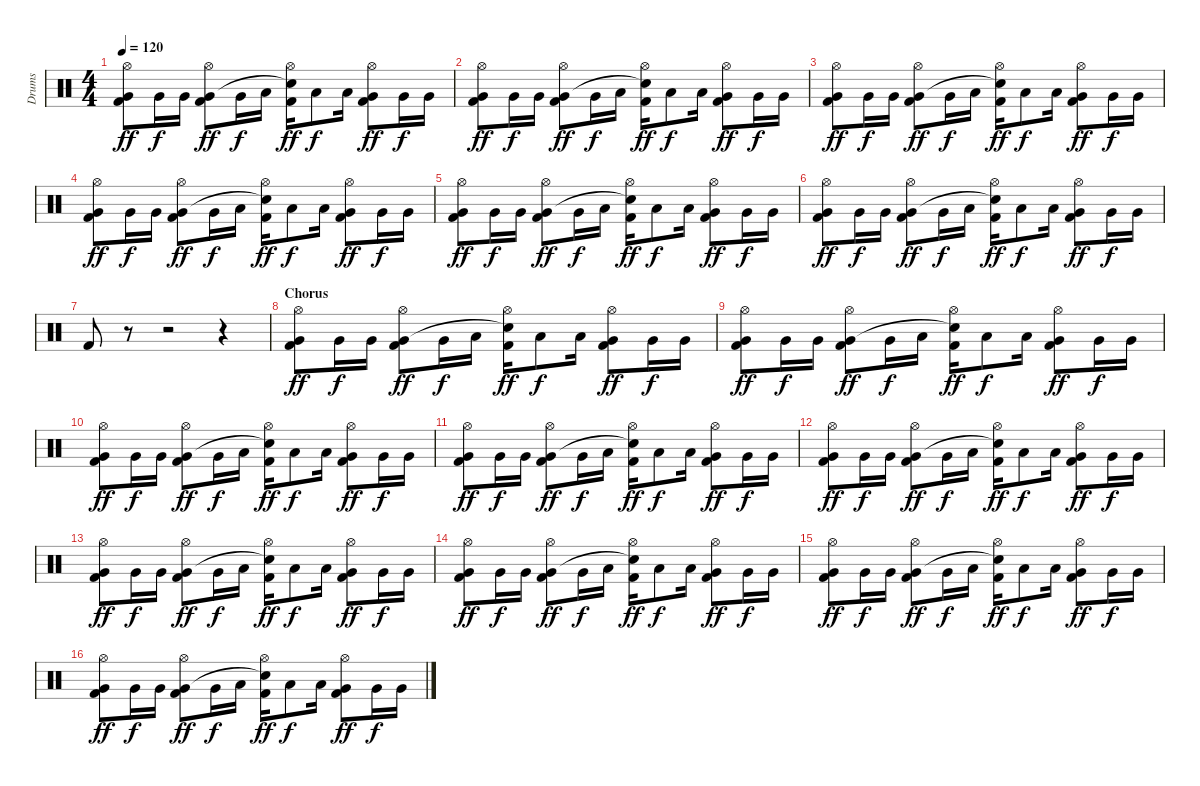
\track ("Drums" "Drums") {instrument percussion}
\staff {score}
\articulation defaults
\ts (4 4)
\tempo 120
\clef neutral
\ks c
("Hi-Hat (open)" "Very Low Tom (hit)" "Kick (hit) 2").8{dy ff} "Very Low Tom (hit)".16{dy f} "Very Low Tom (hit)".16 ("Hi-Hat (open)" "Very Low Tom (hit)" "Kick (hit) 2").8{dy ff} "Very Low Tom (hit)".16{dy f} "Low Tom (hit)".16 ("Hi-Hat (open)" "Snare (hit)"{t} "Kick (hit) 2").16{dy ff} "Low Tom (hit)".8{dy f} "Low Tom (hit)".16 ("Hi-Hat (open)" "Very Low Tom (hit)" "Kick (hit) 2").8{dy ff} "Very Low Tom (hit)".16{dy f} "Very Low Tom (hit)".16 |
("Hi-Hat (open)" "Very Low Tom (hit)" "Kick (hit) 2").8{dy ff} "Very Low Tom (hit)".16{dy f} "Very Low Tom (hit)".16 ("Hi-Hat (open)" "Very Low Tom (hit)" "Kick (hit) 2").8{dy ff} "Very Low Tom (hit)".16{dy f} "Low Tom (hit)".16 ("Hi-Hat (open)" "Snare (hit)"{t} "Kick (hit) 2").16{dy ff} "Low Tom (hit)".8{dy f} "Low Tom (hit)".16 ("Hi-Hat (open)" "Very Low Tom (hit)" "Kick (hit) 2").8{dy ff} "Very Low Tom (hit)".16{dy f} "Very Low Tom (hit)".16 |
("Hi-Hat (open)" "Very Low Tom (hit)" "Kick (hit) 2").8{dy ff} "Very Low Tom (hit)".16{dy f} "Very Low Tom (hit)".16 ("Hi-Hat (open)" "Very Low Tom (hit)" "Kick (hit) 2").8{dy ff} "Very Low Tom (hit)".16{dy f} "Low Tom (hit)".16 ("Hi-Hat (open)" "Snare (hit)"{t} "Kick (hit) 2").16{dy ff} "Low Tom (hit)".8{dy f} "Low Tom (hit)".16 ("Hi-Hat (open)" "Very Low Tom (hit)" "Kick (hit) 2").8{dy ff} "Very Low Tom (hit)".16{dy f} "Very Low Tom (hit)".16 |
("Hi-Hat (open)" "Very Low Tom (hit)" "Kick (hit) 2").8{dy ff} "Very Low Tom (hit)".16{dy f} "Very Low Tom (hit)".16 ("Hi-Hat (open)" "Very Low Tom (hit)" "Kick (hit) 2").8{dy ff} "Very Low Tom (hit)".16{dy f} "Low Tom (hit)".16 ("Hi-Hat (open)" "Snare (hit)"{t} "Kick (hit) 2").16{dy ff} "Low Tom (hit)".8{dy f} "Low Tom (hit)".16 ("Hi-Hat (open)" "Very Low Tom (hit)" "Kick (hit) 2").8{dy ff} "Very Low Tom (hit)".16{dy f} "Very Low Tom (hit)".16 |
("Hi-Hat (open)" "Very Low Tom (hit)" "Kick (hit) 2").8{dy ff} "Very Low Tom (hit)".16{dy f} "Very Low Tom (hit)".16 ("Hi-Hat (open)" "Very Low Tom (hit)" "Kick (hit) 2").8{dy ff} "Very Low Tom (hit)".16{dy f} "Low Tom (hit)".16 ("Hi-Hat (open)" "Snare (hit)"{t} "Kick (hit) 2").16{dy ff} "Low Tom (hit)".8{dy f} "Low Tom (hit)".16 ("Hi-Hat (open)" "Very Low Tom (hit)" "Kick (hit) 2").8{dy ff} "Very Low Tom (hit)".16{dy f} "Very Low Tom (hit)".16 |
("Hi-Hat (open)" "Very Low Tom (hit)" "Kick (hit) 2").8{dy ff} "Very Low Tom (hit)".16{dy f} "Very Low Tom (hit)".16 ("Hi-Hat (open)" "Very Low Tom (hit)" "Kick (hit) 2").8{dy ff} "Very Low Tom (hit)".16{dy f} "Low Tom (hit)".16 ("Hi-Hat (open)" "Snare (hit)"{t} "Kick (hit) 2").16{dy ff} "Low Tom (hit)".8{dy f} "Low Tom (hit)".16 ("Hi-Hat (open)" "Very Low Tom (hit)" "Kick (hit) 2").8{dy ff} "Very Low Tom (hit)".16{dy f} "Very Low Tom (hit)".16 |
"Kick (hit) 2".8 r.8 r.2 r.4 |
\section ("" "Chorus")
("Hi-Hat (open)" "Very Low Tom (hit)" "Kick (hit) 2").8{dy ff} "Very Low Tom (hit)".16{dy f} "Very Low Tom (hit)".16 ("Hi-Hat (open)" "Very Low Tom (hit)" "Kick (hit) 2").8{dy ff} "Very Low Tom (hit)".16{dy f} "Low Tom (hit)".16 ("Hi-Hat (open)" "Snare (hit)"{t} "Kick (hit) 2").16{dy ff} "Low Tom (hit)".8{dy f} "Low Tom (hit)".16 ("Hi-Hat (open)" "Very Low Tom (hit)" "Kick (hit) 2").8{dy ff} "Very Low Tom (hit)".16{dy f} "Very Low Tom (hit)".16 |
("Hi-Hat (open)" "Very Low Tom (hit)" "Kick (hit) 2").8{dy ff} "Very Low Tom (hit)".16{dy f} "Very Low Tom (hit)".16 ("Hi-Hat (open)" "Very Low Tom (hit)" "Kick (hit) 2").8{dy ff} "Very Low Tom (hit)".16{dy f} "Low Tom (hit)".16 ("Hi-Hat (open)" "Snare (hit)"{t} "Kick (hit) 2").16{dy ff} "Low Tom (hit)".8{dy f} "Low Tom (hit)".16 ("Hi-Hat (open)" "Very Low Tom (hit)" "Kick (hit) 2").8{dy ff} "Very Low Tom (hit)".16{dy f} "Very Low Tom (hit)".16 |
("Hi-Hat (open)" "Very Low Tom (hit)" "Kick (hit) 2").8{dy ff} "Very Low Tom (hit)".16{dy f} "Very Low Tom (hit)".16 ("Hi-Hat (open)" "Very Low Tom (hit)" "Kick (hit) 2").8{dy ff} "Very Low Tom (hit)".16{dy f} "Low Tom (hit)".16 ("Hi-Hat (open)" "Snare (hit)"{t} "Kick (hit) 2").16{dy ff} "Low Tom (hit)".8{dy f} "Low Tom (hit)".16 ("Hi-Hat (open)" "Very Low Tom (hit)" "Kick (hit) 2").8{dy ff} "Very Low Tom (hit)".16{dy f} "Very Low Tom (hit)".16 |
("Hi-Hat (open)" "Very Low Tom (hit)" "Kick (hit) 2").8{dy ff} "Very Low Tom (hit)".16{dy f} "Very Low Tom (hit)".16 ("Hi-Hat (open)" "Very Low Tom (hit)" "Kick (hit) 2").8{dy ff} "Very Low Tom (hit)".16{dy f} "Low Tom (hit)".16 ("Hi-Hat (open)" "Snare (hit)"{t} "Kick (hit) 2").16{dy ff} "Low Tom (hit)".8{dy f} "Low Tom (hit)".16 ("Hi-Hat (open)" "Very Low Tom (hit)" "Kick (hit) 2").8{dy ff} "Very Low Tom (hit)".16{dy f} "Very Low Tom (hit)".16 |
("Hi-Hat (open)" "Very Low Tom (hit)" "Kick (hit) 2").8{dy ff} "Very Low Tom (hit)".16{dy f} "Very Low Tom (hit)".16 ("Hi-Hat (open)" "Very Low Tom (hit)" "Kick (hit) 2").8{dy ff} "Very Low Tom (hit)".16{dy f} "Low Tom (hit)".16 ("Hi-Hat (open)" "Snare (hit)"{t} "Kick (hit) 2").16{dy ff} "Low Tom (hit)".8{dy f} "Low Tom (hit)".16 ("Hi-Hat (open)" "Very Low Tom (hit)" "Kick (hit) 2").8{dy ff} "Very Low Tom (hit)".16{dy f} "Very Low Tom (hit)".16 |
("Hi-Hat (open)" "Very Low Tom (hit)" "Kick (hit) 2").8{dy ff} "Very Low Tom (hit)".16{dy f} "Very Low Tom (hit)".16 ("Hi-Hat (open)" "Very Low Tom (hit)" "Kick (hit) 2").8{dy ff} "Very Low Tom (hit)".16{dy f} "Low Tom (hit)".16 ("Hi-Hat (open)" "Snare (hit)"{t} "Kick (hit) 2").16{dy ff} "Low Tom (hit)".8{dy f} "Low Tom (hit)".16 ("Hi-Hat (open)" "Very Low Tom (hit)" "Kick (hit) 2").8{dy ff} "Very Low Tom (hit)".16{dy f} "Very Low Tom (hit)".16 |
("Hi-Hat (open)" "Very Low Tom (hit)" "Kick (hit) 2").8{dy ff} "Very Low Tom (hit)".16{dy f} "Very Low Tom (hit)".16 ("Hi-Hat (open)" "Very Low Tom (hit)" "Kick (hit) 2").8{dy ff} "Very Low Tom (hit)".16{dy f} "Low Tom (hit)".16 ("Hi-Hat (open)" "Snare (hit)"{t} "Kick (hit) 2").16{dy ff} "Low Tom (hit)".8{dy f} "Low Tom (hit)".16 ("Hi-Hat (open)" "Very Low Tom (hit)" "Kick (hit) 2").8{dy ff} "Very Low Tom (hit)".16{dy f} "Very Low Tom (hit)".16 |
("Hi-Hat (open)" "Very Low Tom (hit)" "Kick (hit) 2").8{dy ff} "Very Low Tom (hit)".16{dy f} "Very Low Tom (hit)".16 ("Hi-Hat (open)" "Very Low Tom (hit)" "Kick (hit) 2").8{dy ff} "Very Low Tom (hit)".16{dy f} "Low Tom (hit)".16 ("Hi-Hat (open)" "Snare (hit)"{t} "Kick (hit) 2").16{dy ff} "Low Tom (hit)".8{dy f} "Low Tom (hit)".16 ("Hi-Hat (open)" "Very Low Tom (hit)" "Kick (hit) 2").8{dy ff} "Very Low Tom (hit)".16{dy f} "Very Low Tom (hit)".16 |
("Hi-Hat (open)" "Very Low Tom (hit)" "Kick (hit) 2").8{dy ff} "Very Low Tom (hit)".16{dy f} "Very Low Tom (hit)".16 ("Hi-Hat (open)" "Very Low Tom (hit)" "Kick (hit) 2").8{dy ff} "Very Low Tom (hit)".16{dy f} "Low Tom (hit)".16 ("Hi-Hat (open)" "Snare (hit)"{t} "Kick (hit) 2").16{dy ff} "Low Tom (hit)".8{dy f} "Low Tom (hit)".16 ("Hi-Hat (open)" "Very Low Tom (hit)" "Kick (hit) 2").8{dy ff} "Very Low Tom (hit)".16{dy f} "Very Low Tom (hit)".16
